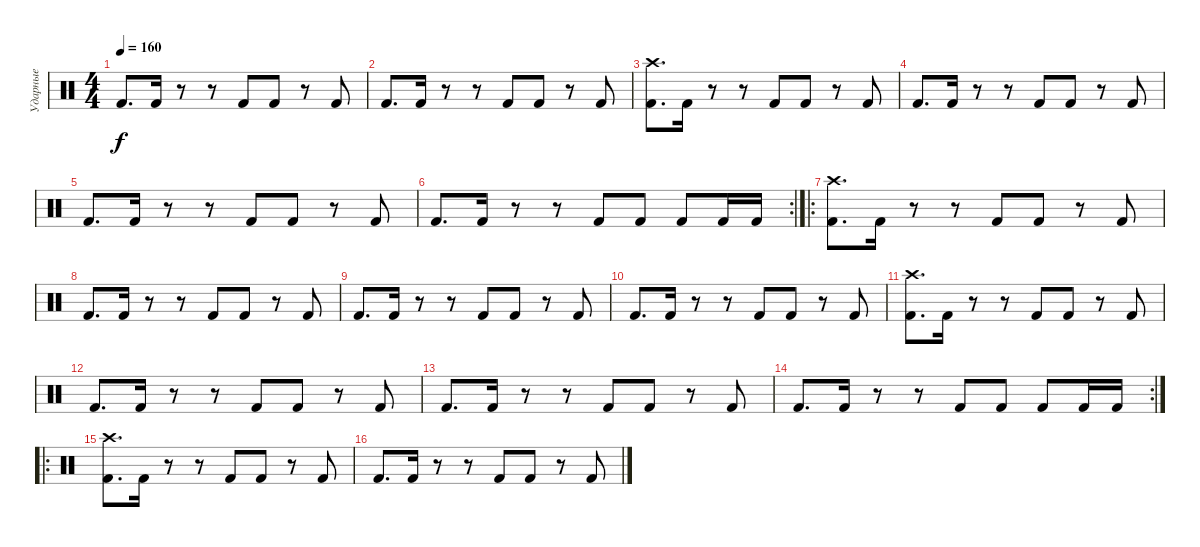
\track ("Ударные" "Ударные") {instrument percussion}
\staff {score}
\articulation defaults
\ts (4 4)
\tempo 160
\clef neutral
\ks c "Kick (hit) 2".8{d dy f} "Kick (hit) 2".16
r.8 r.8 "Kick (hit) 2".8 "Kick (hit) 2".8 r.8 "Kick (hit) 2".8 |
"Kick (hit) 2".8{d} "Kick (hit) 2".16 r.8 r.8 "Kick (hit) 2".8 "Kick (hit) 2".8 r.8 "Kick (hit) 2".8 |
("Kick (hit) 2" "Crash high (hit)").8{d} "Kick (hit) 2".16 r.8 r.8 "Kick (hit) 2".8 "Kick (hit) 2".8 r.8 "Kick (hit) 2".8 |
"Kick (hit) 2".8{d} "Kick (hit) 2".16 r.8 r.8 "Kick (hit) 2".8 "Kick (hit) 2".8 r.8 "Kick (hit) 2".8 |
"Kick (hit) 2".8{d} "Kick (hit) 2".16 r.8 r.8 "Kick (hit) 2".8 "Kick (hit) 2".8 r.8 "Kick (hit) 2".8 |
\rc 2 "Kick (hit) 2".8{d} "Kick (hit) 2".16
r.8 r.8 "Kick (hit) 2".8 "Kick (hit) 2".8 "Kick (hit) 2".8 "Kick (hit) 2".16 "Kick (hit) 2".16 |
\ro
("Kick (hit) 2" "Crash high (hit)").8{d} "Kick (hit) 2".16 r.8 r.8 "Kick (hit) 2".8 "Kick (hit) 2".8 r.8 "Kick (hit) 2".8 |
"Kick (hit) 2".8{d} "Kick (hit) 2".16 r.8 r.8 "Kick (hit) 2".8 "Kick (hit) 2".8 r.8 "Kick (hit) 2".8 |
"Kick (hit) 2".8{d} "Kick (hit) 2".16 r.8 r.8 "Kick (hit) 2".8 "Kick (hit) 2".8 r.8 "Kick (hit) 2".8 |
"Kick (hit) 2".8{d} "Kick (hit) 2".16 r.8 r.8 "Kick (hit) 2".8 "Kick (hit) 2".8 r.8 "Kick (hit) 2".8 |
("Kick (hit) 2" "Crash high (hit)").8{d} "Kick (hit) 2".16 r.8 r.8 "Kick (hit) 2".8 "Kick (hit) 2".8 r.8 "Kick (hit) 2".8 |
"Kick (hit) 2".8{d} "Kick (hit) 2".16 r.8 r.8 "Kick (hit) 2".8 "Kick (hit) 2".8 r.8 "Kick (hit) 2".8 |
"Kick (hit) 2".8{d} "Kick (hit) 2".16 r.8 r.8 "Kick (hit) 2".8 "Kick (hit) 2".8 r.8 "Kick (hit) 2".8 |
\rc 2 "Kick (hit) 2".8{d} "Kick (hit) 2".16
r.8 r.8 "Kick (hit) 2".8 "Kick (hit) 2".8 "Kick (hit) 2".8 "Kick (hit) 2".16 "Kick (hit) 2".16 |
\ro
("Kick (hit) 2" "Crash high (hit)").8{d} "Kick (hit) 2".16 r.8 r.8 "Kick (hit) 2".8 "Kick (hit) 2".8 r.8 "Kick (hit) 2".8 |
"Kick (hit) 2".8{d} "Kick (hit) 2".16 r.8 r.8 "Kick (hit) 2".8 "Kick (hit) 2".8 r.8 "Kick (hit) 2".8
